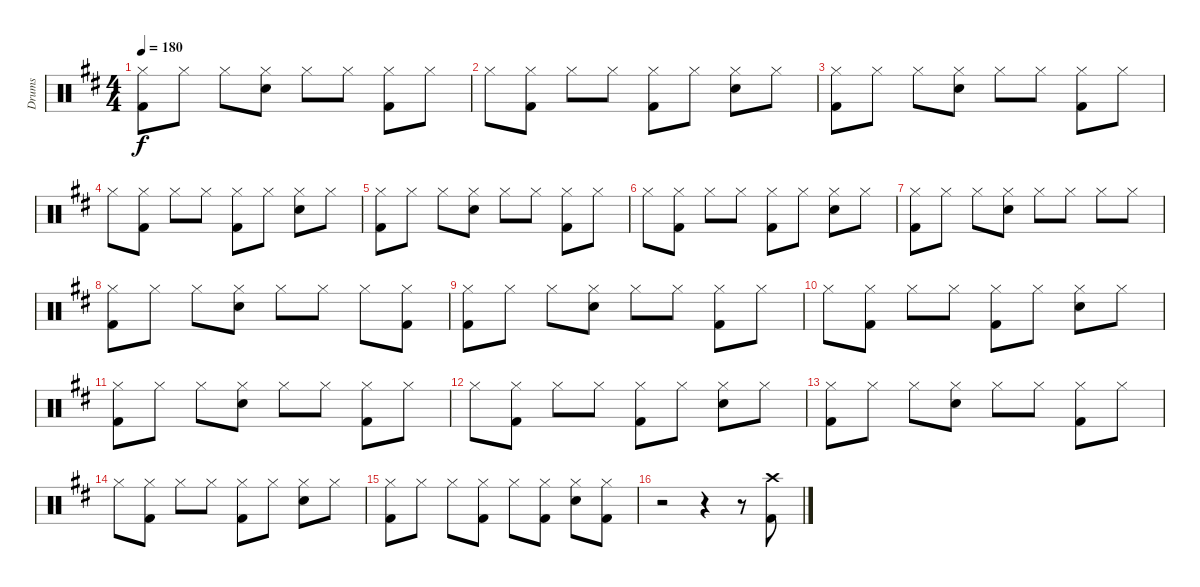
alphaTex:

\track ("Drums" "Drums") {instrument percussion}
\staff {score}
\articulation defaults
\ts (4 4)
\tempo 180
\clef neutral
\ks bminor
("Hi-Hat (closed)" "Kick (hit) 2").8{dy f} "Hi-Hat (closed)".8 "Hi-Hat (closed)".8 ("Hi-Hat (closed)" "Electric Snare (hit)").8 "Hi-Hat (closed)".8 "Hi-Hat (closed)".8 ("Hi-Hat (closed)" "Kick (hit) 2").8 "Hi-Hat (closed)".8 |
"Hi-Hat (closed)".8 ("Hi-Hat (closed)" "Kick (hit) 2").8 "Hi-Hat (closed)".8 "Hi-Hat (closed)".8 ("Hi-Hat (closed)" "Kick (hit) 2").8 "Hi-Hat (closed)".8 ("Hi-Hat (closed)" "Electric Snare (hit)").8 "Hi-Hat (closed)".8 |
("Hi-Hat (closed)" "Kick (hit) 2").8 "Hi-Hat (closed)".8 "Hi-Hat (closed)".8 ("Hi-Hat (closed)" "Electric Snare (hit)").8 "Hi-Hat (closed)".8 "Hi-Hat (closed)".8 ("Hi-Hat (closed)" "Kick (hit) 2").8 "Hi-Hat (closed)".8 |
"Hi-Hat (closed)".8 ("Hi-Hat (closed)" "Kick (hit) 2").8 "Hi-Hat (closed)".8 "Hi-Hat (closed)".8 ("Hi-Hat (closed)" "Kick (hit) 2").8 "Hi-Hat (closed)".8 ("Hi-Hat (closed)" "Electric Snare (hit)").8 "Hi-Hat (closed)".8 |
("Hi-Hat (closed)" "Kick (hit) 2").8 "Hi-Hat (closed)".8 "Hi-Hat (closed)".8 ("Hi-Hat (closed)" "Electric Snare (hit)").8 "Hi-Hat (closed)".8 "Hi-Hat (closed)".8 ("Hi-Hat (closed)" "Kick (hit) 2").8 "Hi-Hat (closed)".8 |
"Hi-Hat (closed)".8 ("Hi-Hat (closed)" "Kick (hit) 2").8 "Hi-Hat (closed)".8 "Hi-Hat (closed)".8 ("Hi-Hat (closed)" "Kick (hit) 2").8 "Hi-Hat (closed)".8 ("Hi-Hat (closed)" "Electric Snare (hit)").8 "Hi-Hat (closed)".8 |
("Hi-Hat (closed)" "Kick (hit) 2").8 "Hi-Hat (closed)".8 "Hi-Hat (closed)".8 ("Hi-Hat (closed)" "Electric Snare (hit)").8 "Hi-Hat (closed)".8 "Hi-Hat (closed)".8 "Hi-Hat (closed)".8 "Hi-Hat (closed)".8 |
("Hi-Hat (closed)" "Kick (hit) 2").8 "Hi-Hat (closed)".8 "Hi-Hat (closed)".8 ("Hi-Hat (closed)" "Electric Snare (hit)").8 "Hi-Hat (closed)".8 "Hi-Hat (closed)".8 "Hi-Hat (closed)".8 ("Hi-Hat (closed)" "Kick (hit) 2").8 |
("Hi-Hat (closed)" "Kick (hit) 2").8 "Hi-Hat (closed)".8 "Hi-Hat (closed)".8 ("Hi-Hat (closed)" "Electric Snare (hit)").8 "Hi-Hat (closed)".8 "Hi-Hat (closed)".8 ("Hi-Hat (closed)" "Kick (hit) 2").8 "Hi-Hat (closed)".8 |
"Hi-Hat (closed)".8 ("Hi-Hat (closed)" "Kick (hit) 2").8 "Hi-Hat (closed)".8 "Hi-Hat (closed)".8 ("Hi-Hat (closed)" "Kick (hit) 2").8 "Hi-Hat (closed)".8 ("Hi-Hat (closed)" "Electric Snare (hit)").8 "Hi-Hat (closed)".8 |
("Hi-Hat (closed)" "Kick (hit) 2").8 "Hi-Hat (closed)".8 "Hi-Hat (closed)".8 ("Hi-Hat (closed)" "Electric Snare (hit)").8 "Hi-Hat (closed)".8 "Hi-Hat (closed)".8 ("Hi-Hat (closed)" "Kick (hit) 2").8 "Hi-Hat (closed)".8 |
"Hi-Hat (closed)".8 ("Hi-Hat (closed)" "Kick (hit) 2").8 "Hi-Hat (closed)".8 "Hi-Hat (closed)".8 ("Hi-Hat (closed)" "Kick (hit) 2").8 "Hi-Hat (closed)".8 ("Hi-Hat (closed)" "Electric Snare (hit)").8 "Hi-Hat (closed)".8 |
("Hi-Hat (closed)" "Kick (hit) 2").8 "Hi-Hat (closed)".8 "Hi-Hat (closed)".8 ("Hi-Hat (closed)" "Electric Snare (hit)").8 "Hi-Hat (closed)".8 "Hi-Hat (closed)".8 ("Hi-Hat (closed)" "Kick (hit) 2").8 "Hi-Hat (closed)".8 |
"Hi-Hat (closed)".8 ("Hi-Hat (closed)" "Kick (hit) 2").8 "Hi-Hat (closed)".8 "Hi-Hat (closed)".8 ("Hi-Hat (closed)" "Kick (hit) 2").8 "Hi-Hat (closed)".8 ("Hi-Hat (closed)" "Electric Snare (hit)").8 "Hi-Hat (closed)".8 |
("Hi-Hat (closed)" "Kick (hit) 2").8 "Hi-Hat (closed)".8 "Hi-Hat (closed)".8 ("Hi-Hat (closed)" "Kick (hit) 2").8 "Hi-Hat (closed)".8 ("Hi-Hat (closed)" "Kick (hit) 2").8 ("Hi-Hat (closed)" "Electric Snare (hit)").8 ("Hi-Hat (closed)" "Kick (hit) 2").8 |
r.2 r.4 r.8 ("Crash high (hit)" "Kick (hit) 2").8
